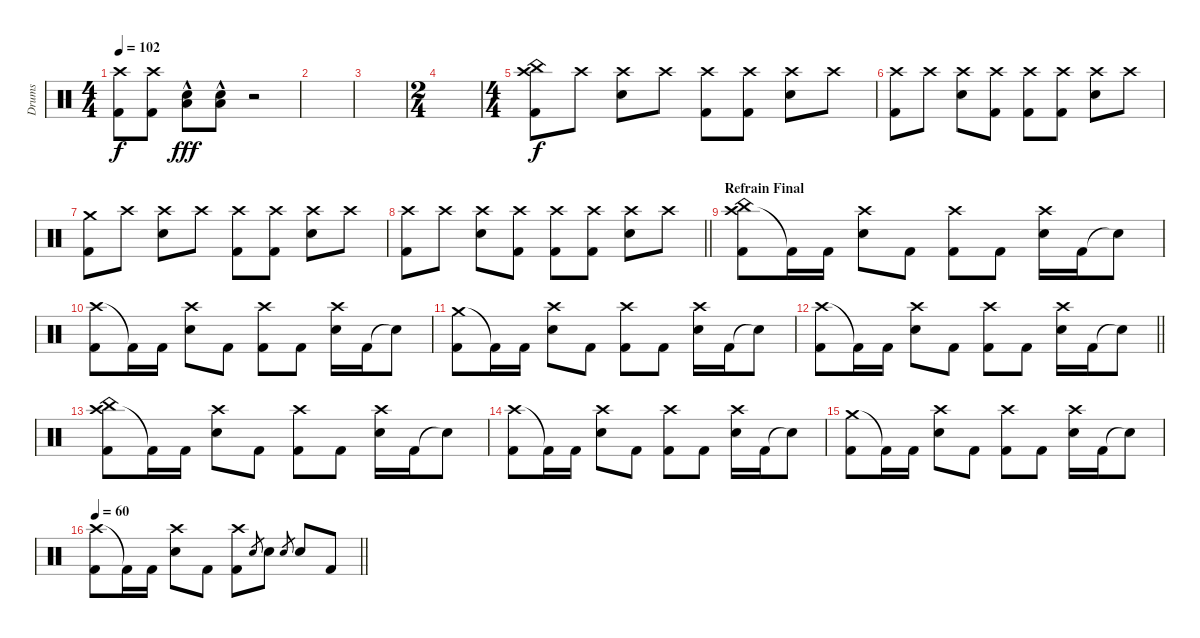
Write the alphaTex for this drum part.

\track ("Drums" "Drums") {instrument percussion}
\staff {score}
\articulation defaults
\ts (4 4)
\tempo 102
\clef neutral
\ks c
("Crash high (hit)" "Kick (hit) 2").8{dy f} ("Crash high (hit)" "Kick (hit) 2").8 ("Low Floor Tom (hit)"{hac} "Snare (hit) 2").8{dy fff} ("Low Floor Tom (hit)"{hac} "Snare (hit) 2").8 r.2 |
|
|
\ts (2 4)
|
\ts (4 4)
("Crash high (hit)" "China (hit)" "Kick (hit) 2").8{dy f} "Crash high (hit)".8 ("Crash high (hit)" "Snare (hit) 2").8 "Crash high (hit)".8 ("Crash high (hit)" "Kick (hit) 2").8 ("Crash high (hit)" "Kick (hit) 2").8 ("Crash high (hit)" "Snare (hit) 2").8 "Crash high (hit)".8 |
("Crash high (hit)" "Kick (hit) 2").8 "Crash high (hit)".8 ("Crash high (hit)" "Snare (hit) 2").8 ("Crash high (hit)" "Kick (hit) 2").8 ("Crash high (hit)" "Kick (hit) 2").8 ("Crash high (hit)" "Kick (hit) 2").8 ("Crash high (hit)" "Snare (hit) 2").8 "Crash high (hit)".8 |
("Crash medium (hit)" "Kick (hit) 2").8 "Crash high (hit)".8 ("Crash high (hit)" "Snare (hit) 2").8 "Crash high (hit)".8 ("Crash high (hit)" "Kick (hit) 2").8 ("Crash high (hit)" "Kick (hit) 2").8 ("Crash high (hit)" "Snare (hit) 2").8 "Crash high (hit)".8 |
\barLineRight lightlight
("Crash high (hit)" "Kick (hit) 2").8 "Crash high (hit)".8 ("Crash high (hit)" "Snare (hit) 2").8 ("Crash high (hit)" "Kick (hit) 2").8 ("Crash high (hit)" "Kick (hit) 2").8 ("Crash high (hit)" "Kick (hit) 2").8 ("Crash high (hit)" "Snare (hit) 2").8 "Crash high (hit)".8 |
\section ("" "Refrain Final")
("Crash high (hit)" "China (hit)" "Kick (hit) 2").8 "Kick (hit) 2"{t}.16 "Kick (hit) 2".16 ("Crash high (hit)" "Snare (hit) 2").8 "Kick (hit) 2".8 ("Crash high (hit)" "Kick (hit) 2").8 "Kick (hit) 2".8 ("Crash high (hit)" "Snare (hit) 2").16 "Kick (hit) 2".16 "Snare (hit)"{t}.8 |
("Crash high (hit)" "Kick (hit) 2").8 "Kick (hit) 2"{t}.16 "Kick (hit) 2".16 ("Crash high (hit)" "Snare (hit) 2").8 "Kick (hit) 2".8 ("Crash high (hit)" "Kick (hit) 2").8 "Kick (hit) 2".8 ("Crash high (hit)" "Snare (hit) 2").16 "Kick (hit) 2".16 "Snare (hit)"{t}.8 |
("Crash medium (hit)" "Kick (hit) 2").8 "Kick (hit) 2"{t}.16 "Kick (hit) 2".16 ("Crash high (hit)" "Snare (hit) 2").8 "Kick (hit) 2".8 ("Crash high (hit)" "Kick (hit) 2").8 "Kick (hit) 2".8 ("Crash high (hit)" "Snare (hit) 2").16 "Kick (hit) 2".16 "Snare (hit)"{t}.8 |
\barLineRight lightlight
("Crash high (hit)" "Kick (hit) 2").8 "Kick (hit) 2"{t}.16 "Kick (hit) 2".16 ("Crash high (hit)" "Snare (hit) 2").8 "Kick (hit) 2".8 ("Crash high (hit)" "Kick (hit) 2").8 "Kick (hit) 2".8 ("Crash high (hit)" "Snare (hit) 2").16 "Kick (hit) 2".16 "Snare (hit)"{t}.8 |
("Crash high (hit)" "China (hit)" "Kick (hit) 2").8 "Kick (hit) 2"{t}.16 "Kick (hit) 2".16 ("Crash high (hit)" "Snare (hit) 2").8 "Kick (hit) 2".8 ("Crash high (hit)" "Kick (hit) 2").8 "Kick (hit) 2".8 ("Crash high (hit)" "Snare (hit) 2").16 "Kick (hit) 2".16 "Snare (hit)"{t}.8 |
("Crash high (hit)" "Kick (hit) 2").8 "Kick (hit) 2"{t}.16 "Kick (hit) 2".16 ("Crash high (hit)" "Snare (hit) 2").8 "Kick (hit) 2".8 ("Crash high (hit)" "Kick (hit) 2").8 "Kick (hit) 2".8 ("Crash high (hit)" "Snare (hit) 2").16 "Kick (hit) 2".16 "Snare (hit)"{t}.8 |
("Crash medium (hit)" "Kick (hit) 2").8 "Kick (hit) 2"{t}.16 "Kick (hit) 2".16 ("Crash high (hit)" "Snare (hit) 2").8 "Kick (hit) 2".8 ("Crash high (hit)" "Kick (hit) 2").8 "Kick (hit) 2".8 ("Crash high (hit)" "Snare (hit) 2").16 "Kick (hit) 2".16 "Snare (hit)"{t}.8 |
\tempo 60
\barLineRight lightlight
("Crash high (hit)" "Kick (hit) 2").8 "Kick (hit) 2"{t}.16 "Kick (hit) 2".16 ("Crash high (hit)" "Snare (hit) 2").8 "Kick (hit) 2".8 ("Crash high (hit)" "Kick (hit) 2").8 "Snare (hit) 2".8{gr} "Snare (hit) 2".8 "Snare (hit) 2".8{gr} "Snare (hit) 2".8 "Kick (hit) 2".8
